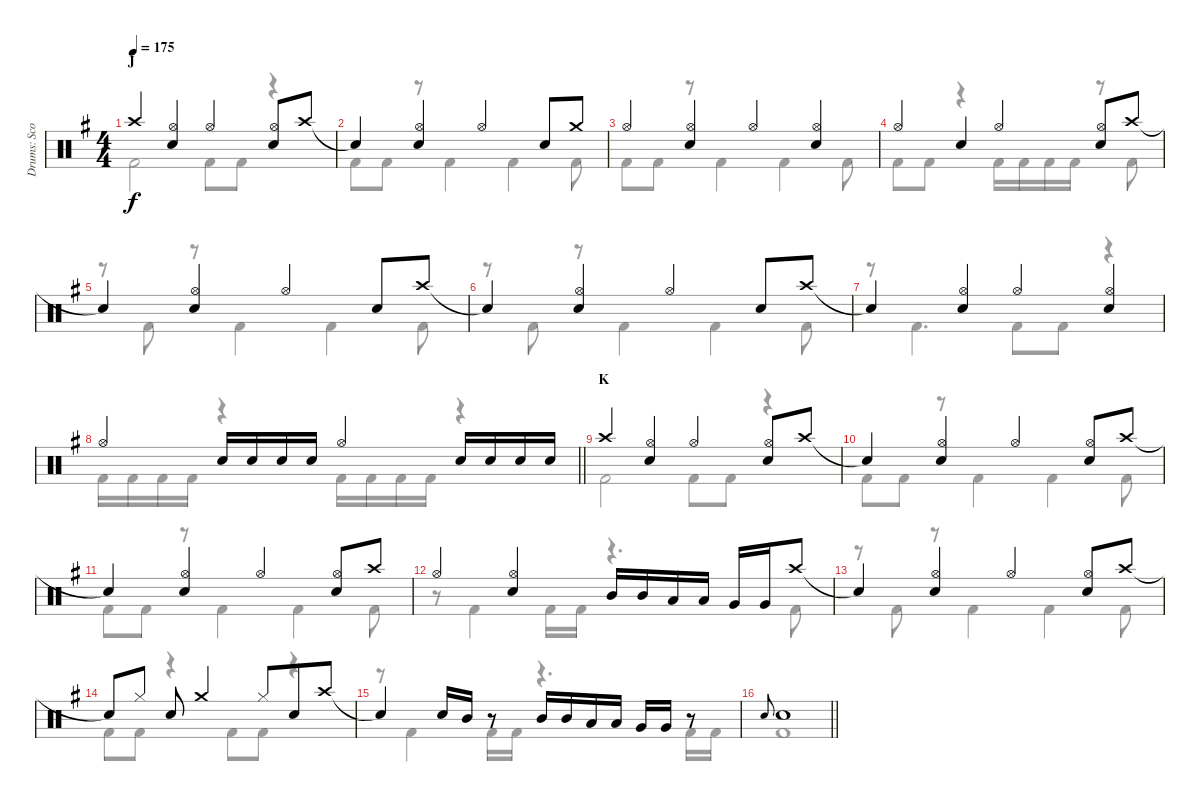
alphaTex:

\track ("Drums: Scott" "Drums: Sco") {instrument percussion}
\staff {score}
\articulation defaults
\voice
\ts (4 4)
\section ("" "J")
\tempo 175
\clef neutral
\ks g "Crash high (hit)".4{dy f}
("Hi-Hat (open)" "Snare (hit) 2").4 "Hi-Hat (open)".4 ("Hi-Hat (open)" "Snare (hit) 2").8 "Crash high (hit)".8 |
"Snare (hit)"{t}.4 ("Hi-Hat (open)" "Snare (hit) 2").4 "Hi-Hat (open)".4{beam merge} "Snare (hit) 2".8 "Crash medium (hit)".8 |
"Hi-Hat (open)".4 ("Hi-Hat (open)" "Snare (hit) 2").4 "Hi-Hat (open)".4 ("Hi-Hat (open)" "Snare (hit) 2").4 |
"Hi-Hat (open)".4 "Snare (hit) 2".4 "Hi-Hat (open)".4 ("Hi-Hat (open)" "Snare (hit) 2").8 "Crash high (hit)".8 |
"Snare (hit)"{t}.4 ("Hi-Hat (open)" "Snare (hit) 2").4 "Hi-Hat (open)".4{beam merge} "Snare (hit) 2".8 "Crash high (hit)".8 |
"Snare (hit)"{t}.4 ("Hi-Hat (open)" "Snare (hit) 2").4 "Hi-Hat (open)".4{beam merge} "Snare (hit) 2".8 "Crash high (hit)".8 |
"Snare (hit)"{t}.4 ("Hi-Hat (open)" "Snare (hit) 2").4 "Hi-Hat (open)".4 ("Hi-Hat (open)" "Snare (hit) 2").4 |
\barLineRight lightlight "Hi-Hat (open)".4 "Snare (hit) 2".16 "Snare (hit) 2".16 "Snare (hit) 2".16 "Snare (hit) 2".16 "Hi-Hat (open)".4 "Snare (hit) 2".16 "Snare (hit) 2".16 "Snare (hit) 2".16 "Snare (hit) 2".16
|
\section ("" "K")
"Crash high (hit)".4 ("Hi-Hat (open)" "Snare (hit) 2").4 "Hi-Hat (open)".4 ("Hi-Hat (open)" "Snare (hit) 2").8 "Crash high (hit)".8 |
"Snare (hit)"{t}.4 ("Hi-Hat (open)" "Snare (hit) 2").4 "Hi-Hat (open)".4 ("Hi-Hat (open)" "Snare (hit) 2").8 "Crash high (hit)".8 |
"Snare (hit)"{t}.4 ("Hi-Hat (open)" "Snare (hit) 2").4 "Hi-Hat (open)".4 ("Hi-Hat (open)" "Snare (hit) 2").8 "Crash high (hit)".8 |
"Hi-Hat (open)".4 ("Hi-Hat (open)" "Snare (hit) 2").4 "Mid Tom (hit)".16 "Mid Tom (hit)".16 "Low Tom (hit)".16 "Low Tom (hit)".16 "Very Low Tom (hit)".16 "Very Low Tom (hit)".16 "Crash high (hit)".8 |
"Snare (hit)"{t}.4 ("Hi-Hat (open)" "Snare (hit) 2").4 "Hi-Hat (open)".4 ("Hi-Hat (open)" "Snare (hit) 2").8 "Crash high (hit)".8 |
"Snare (hit)"{t}.8 "Hi-Hat (closed)".8 "Snare (hit) 2".8 "Crash medium (hit)".4 "Hi-Hat (closed)".8{beam merge} "Snare (hit) 2".8 "Crash high (hit)".8 |
"Snare (hit)"{t}.4 "Snare (hit) 2".16 "Mid Tom (hit)".16 r.8 "Mid Tom (hit)".16 "Mid Tom (hit)".16 "Low Tom (hit)".16 "Low Tom (hit)".16 "Very Low Tom (hit)".16 "Very Low Tom (hit)".16 r.8 |
\barLineRight lightlight "Electric Snare (hit)".8{gr onbeat} "Snare (hit) 2".1
\voice
\clef neutral
\ottava regular
\simile none
\ks g "Kick (hit) 2".2{dy f} "Kick (hit) 2".8 "Kick (hit) 2".8
r.4 |
"Kick (hit) 2".8 "Kick (hit) 2".8 r.8 "Kick (hit) 2".4 "Kick (hit) 2".4 "Kick (hit) 2".8 |
"Kick (hit) 2".8 "Kick (hit) 2".8 r.8 "Kick (hit) 2".4 "Kick (hit) 2".4 "Kick (hit) 2".8 |
"Kick (hit) 2".8 "Kick (hit) 2".8 r.4 "Kick (hit) 2".16 "Kick (hit) 2".16 "Kick (hit) 2".16 "Kick (hit) 2".16 r.8 "Kick (hit) 2".8 |
r.8 "Kick (hit) 2".8 r.8 "Kick (hit) 2".4 "Kick (hit) 2".4 "Kick (hit) 2".8 |
r.8 "Kick (hit) 2".8 r.8 "Kick (hit) 2".4 "Kick (hit) 2".4 "Kick (hit) 2".8 |
r.8 "Kick (hit) 2".4{d} "Kick (hit) 2".8 "Kick (hit) 2".8 r.4 |
\barLineRight lightlight "Kick (hit) 2".16 "Kick (hit) 2".16 "Kick (hit) 2".16 "Kick (hit) 2".16
r.4 "Kick (hit) 2".16 "Kick (hit) 2".16 "Kick (hit) 2".16 "Kick (hit) 2".16 r.4 |
"Kick (hit) 2".2 "Kick (hit) 2".8 "Kick (hit) 2".8 r.4 |
"Kick (hit) 2".8 "Kick (hit) 2".8 r.8 "Kick (hit) 2".4 "Kick (hit) 2".4 "Kick (hit) 2".8 |
"Kick (hit) 2".8 "Kick (hit) 2".8 r.8 "Kick (hit) 2".4 "Kick (hit) 2".4 "Kick (hit) 2".8 |
r.8 "Kick (hit) 2".4 "Kick (hit) 2".16 "Kick (hit) 2".16 r.4{d} "Kick (hit) 2".8 |
r.8 "Kick (hit) 2".8 r.8 "Kick (hit) 2".4 "Kick (hit) 2".4 "Kick (hit) 2".8 |
"Kick (hit) 2".8 "Kick (hit) 2".8 r.4 "Kick (hit) 2".8 "Kick (hit) 2".8 r.4 |
r.8 "Kick (hit) 2".4 "Kick (hit) 2".16 "Kick (hit) 2".16 r.4{d} "Kick (hit) 2".16 "Kick (hit) 2".16 |
\barLineRight lightlight "Kick (hit) 2".1
